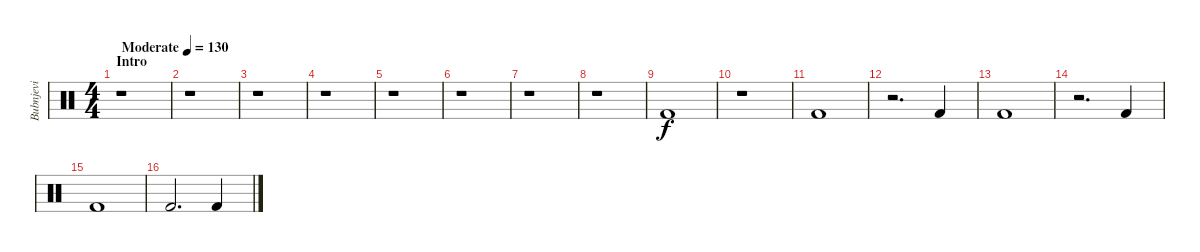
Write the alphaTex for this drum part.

\track ("Bubnjevi" "Bubnjevi") {instrument percussion}
\staff {score}
\articulation defaults
\ts (4 4)
\section ("" "Intro")
\tempo (130 "Moderate")
\clef neutral
\ks c
r.1{dy f} |
r.1 |
r.1 |
r.1 |
r.1 |
r.1 |
r.1 |
r.1 |
"Kick (hit) 2".1 |
r.1 |
"Kick (hit) 2".1 |
r.2{d} "Kick (hit) 2".4 |
"Kick (hit) 2".1 |
r.2{d} "Kick (hit) 2".4 |
"Kick (hit) 2".1 |
"Kick (hit) 2".2{d} "Kick (hit) 2".4
